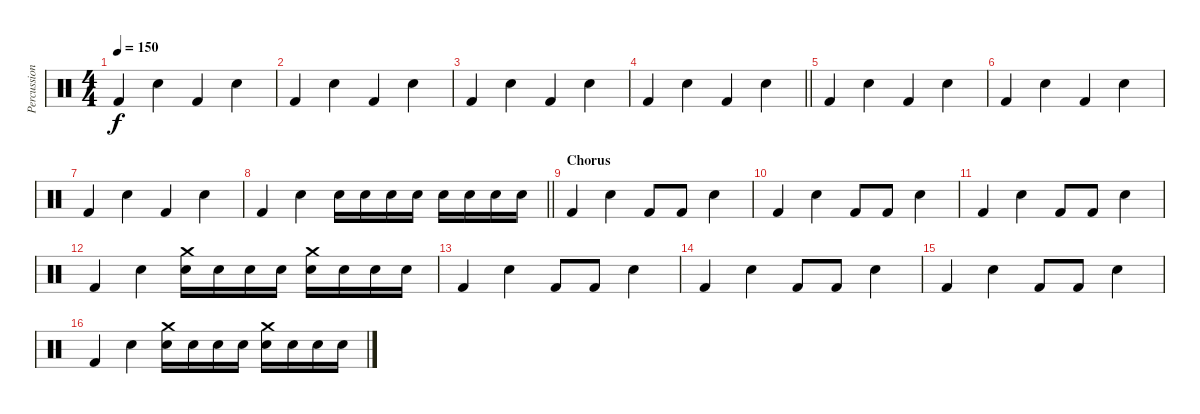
\track ("Percussion" "Percussion") {instrument percussion bank 255}
\staff {score}
\articulation defaults
\ts (4 4)
\tempo 150
\clef neutral
\ks c "Kick (hit) 2".4{dy f} "Electric Snare (hit)".4 "Kick (hit) 2".4 "Electric Snare (hit)".4
|
"Kick (hit) 2".4 "Electric Snare (hit)".4 "Kick (hit) 2".4 "Electric Snare (hit)".4 |
"Kick (hit) 2".4 "Electric Snare (hit)".4 "Kick (hit) 2".4 "Electric Snare (hit)".4 |
\barLineRight lightlight "Kick (hit) 2".4 "Electric Snare (hit)".4 "Kick (hit) 2".4 "Electric Snare (hit)".4
|
"Kick (hit) 2".4 "Electric Snare (hit)".4 "Kick (hit) 2".4 "Electric Snare (hit)".4 |
"Kick (hit) 2".4 "Electric Snare (hit)".4 "Kick (hit) 2".4 "Electric Snare (hit)".4 |
"Kick (hit) 2".4 "Electric Snare (hit)".4 "Kick (hit) 2".4 "Electric Snare (hit)".4 |
\barLineRight lightlight "Kick (hit) 2".4 "Electric Snare (hit)".4 "Electric Snare (hit)".16 "Electric Snare (hit)".16 "Electric Snare (hit)".16 "Electric Snare (hit)".16 "Electric Snare (hit)".16 "Electric Snare (hit)".16 "Electric Snare (hit)".16 "Electric Snare (hit)".16
|
\section ("" "Chorus")
"Kick (hit) 2".4 "Electric Snare (hit)".4 "Kick (hit) 2".8 "Kick (hit) 2".8 "Electric Snare (hit)".4 |
"Kick (hit) 2".4 "Electric Snare (hit)".4 "Kick (hit) 2".8 "Kick (hit) 2".8 "Electric Snare (hit)".4 |
"Kick (hit) 2".4 "Electric Snare (hit)".4 "Kick (hit) 2".8 "Kick (hit) 2".8 "Electric Snare (hit)".4 |
"Kick (hit) 2".4 "Electric Snare (hit)".4 ("Crash medium (hit)" "Electric Snare (hit)").16 "Electric Snare (hit)".16 "Electric Snare (hit)".16 "Electric Snare (hit)".16 ("Crash medium (hit)" "Electric Snare (hit)").16 "Electric Snare (hit)".16 "Electric Snare (hit)".16 "Electric Snare (hit)".16 |
"Kick (hit) 2".4 "Electric Snare (hit)".4 "Kick (hit) 2".8 "Kick (hit) 2".8 "Electric Snare (hit)".4 |
"Kick (hit) 2".4 "Electric Snare (hit)".4 "Kick (hit) 2".8 "Kick (hit) 2".8 "Electric Snare (hit)".4 |
"Kick (hit) 2".4 "Electric Snare (hit)".4 "Kick (hit) 2".8 "Kick (hit) 2".8 "Electric Snare (hit)".4 |
"Kick (hit) 2".4 "Electric Snare (hit)".4 ("Crash medium (hit)" "Electric Snare (hit)").16 "Electric Snare (hit)".16 "Electric Snare (hit)".16 "Electric Snare (hit)".16 ("Crash medium (hit)" "Electric Snare (hit)").16 "Electric Snare (hit)".16 "Electric Snare (hit)".16 "Electric Snare (hit)".16
